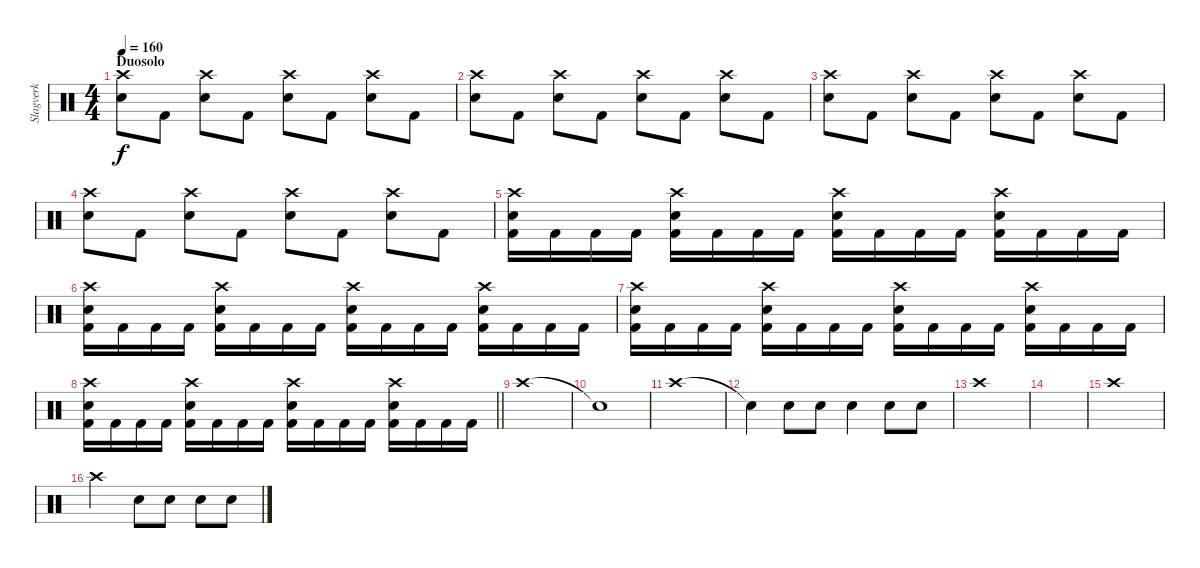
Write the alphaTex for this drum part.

\track ("Slagverk" "Slagverk") {instrument percussion}
\staff {score}
\articulation defaults
\ts (4 4)
\section ("" "Duosolo")
\tempo 160
\clef neutral
\ks c
("Crash high (hit)" "Snare (hit) 2").8{dy f} "Kick (hit) 2".8 ("Crash high (hit)" "Snare (hit) 2").8 "Kick (hit) 2".8 ("Crash high (hit)" "Snare (hit) 2").8 "Kick (hit) 2".8 ("Crash high (hit)" "Snare (hit) 2").8 "Kick (hit) 2".8 |
("Crash high (hit)" "Snare (hit) 2").8 "Kick (hit) 2".8 ("Crash high (hit)" "Snare (hit) 2").8 "Kick (hit) 2".8 ("Crash high (hit)" "Snare (hit) 2").8 "Kick (hit) 2".8 ("Crash high (hit)" "Snare (hit) 2").8 "Kick (hit) 2".8 |
("Crash high (hit)" "Snare (hit) 2").8 "Kick (hit) 2".8 ("Crash high (hit)" "Snare (hit) 2").8 "Kick (hit) 2".8 ("Crash high (hit)" "Snare (hit) 2").8 "Kick (hit) 2".8 ("Crash high (hit)" "Snare (hit) 2").8 "Kick (hit) 2".8 |
("Crash high (hit)" "Snare (hit) 2").8 "Kick (hit) 2".8 ("Crash high (hit)" "Snare (hit) 2").8 "Kick (hit) 2".8 ("Crash high (hit)" "Snare (hit) 2").8 "Kick (hit) 2".8 ("Crash high (hit)" "Snare (hit) 2").8 "Kick (hit) 2".8 |
("Crash high (hit)" "Snare (hit) 2" "Kick (hit) 2").16 "Kick (hit) 2".16 "Kick (hit) 2".16 "Kick (hit) 2".16 ("Crash high (hit)" "Snare (hit) 2" "Kick (hit) 2").16 "Kick (hit) 2".16 "Kick (hit) 2".16 "Kick (hit) 2".16 ("Crash high (hit)" "Snare (hit) 2" "Kick (hit) 2").16 "Kick (hit) 2".16 "Kick (hit) 2".16 "Kick (hit) 2".16 ("Crash high (hit)" "Snare (hit) 2" "Kick (hit) 2").16 "Kick (hit) 2".16 "Kick (hit) 2".16 "Kick (hit) 2".16 |
("Crash high (hit)" "Snare (hit) 2" "Kick (hit) 2").16 "Kick (hit) 2".16 "Kick (hit) 2".16 "Kick (hit) 2".16 ("Crash high (hit)" "Snare (hit) 2" "Kick (hit) 2").16 "Kick (hit) 2".16 "Kick (hit) 2".16 "Kick (hit) 2".16 ("Crash high (hit)" "Snare (hit) 2" "Kick (hit) 2").16 "Kick (hit) 2".16 "Kick (hit) 2".16 "Kick (hit) 2".16 ("Crash high (hit)" "Snare (hit) 2" "Kick (hit) 2").16 "Kick (hit) 2".16 "Kick (hit) 2".16 "Kick (hit) 2".16 |
("Crash high (hit)" "Snare (hit) 2" "Kick (hit) 2").16 "Kick (hit) 2".16 "Kick (hit) 2".16 "Kick (hit) 2".16 ("Crash high (hit)" "Snare (hit) 2" "Kick (hit) 2").16 "Kick (hit) 2".16 "Kick (hit) 2".16 "Kick (hit) 2".16 ("Crash high (hit)" "Snare (hit) 2" "Kick (hit) 2").16 "Kick (hit) 2".16 "Kick (hit) 2".16 "Kick (hit) 2".16 ("Crash high (hit)" "Snare (hit) 2" "Kick (hit) 2").16 "Kick (hit) 2".16 "Kick (hit) 2".16 "Kick (hit) 2".16 |
\barLineRight lightlight
("Crash high (hit)" "Snare (hit) 2" "Kick (hit) 2").16 "Kick (hit) 2".16 "Kick (hit) 2".16 "Kick (hit) 2".16 ("Crash high (hit)" "Snare (hit) 2" "Kick (hit) 2").16 "Kick (hit) 2".16 "Kick (hit) 2".16 "Kick (hit) 2".16 ("Crash high (hit)" "Snare (hit) 2" "Kick (hit) 2").16 "Kick (hit) 2".16 "Kick (hit) 2".16 "Kick (hit) 2".16 ("Crash high (hit)" "Snare (hit) 2" "Kick (hit) 2").16 "Kick (hit) 2".16 "Kick (hit) 2".16 "Kick (hit) 2".16 |
"Crash high (hit)".1 |
"Snare (hit)"{t}.1 |
"Crash high (hit)".1 |
"Snare (hit)"{t}.4 "Snare (hit) 2".8 "Snare (hit) 2".8 "Snare (hit) 2".4 "Snare (hit) 2".8 "Snare (hit) 2".8 |
"Crash high (hit)".1 |
|
"Crash high (hit)".1 |
"Crash high (hit)".2 "Snare (hit) 2".8 "Snare (hit) 2".8 "Snare (hit) 2".8 "Snare (hit) 2".8
